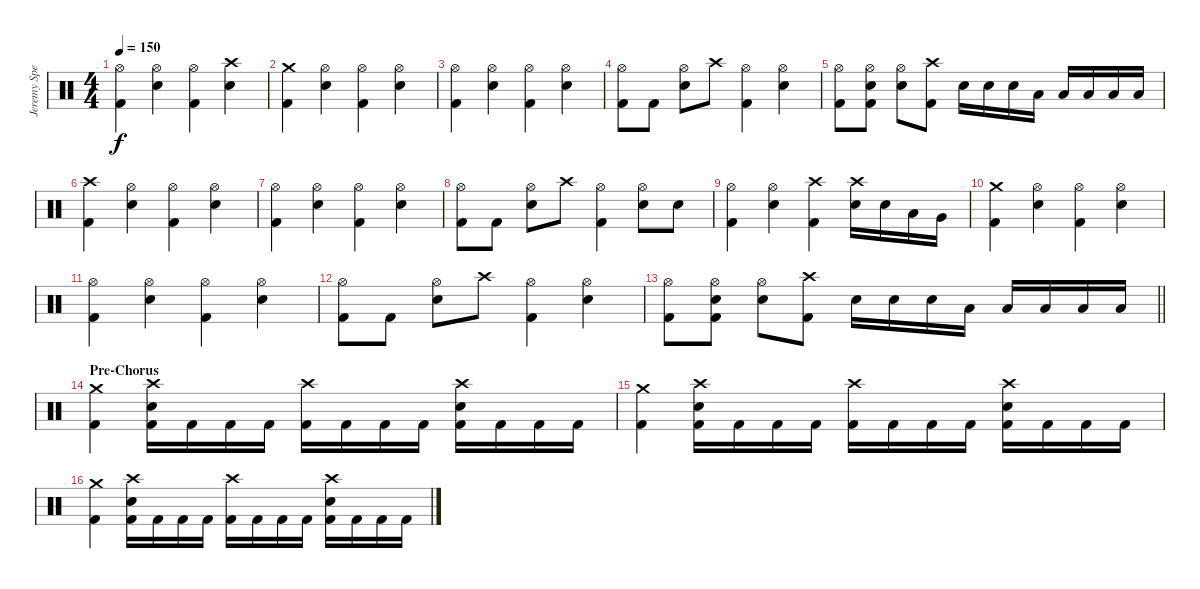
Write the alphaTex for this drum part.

\track ("Jeremy Spencer – Drums" "Jeremy Spe") {instrument percussion}
\staff {score}
\articulation defaults
\ts (4 4)
\tempo 150
\clef neutral
\ks c
("Hi-Hat (open)" "Kick (hit) 2").4{dy f} ("Hi-Hat (open)" "Snare (hit) 2").4 ("Hi-Hat (open)" "Kick (hit) 2").4 ("Crash high (hit)" "Snare (hit) 2").4 |
("Crash medium (hit)" "Kick (hit) 2").4 ("Hi-Hat (open)" "Snare (hit) 2").4 ("Hi-Hat (open)" "Kick (hit) 2").4 ("Hi-Hat (open)" "Snare (hit) 2").4 |
("Hi-Hat (open)" "Kick (hit) 2").4 ("Hi-Hat (open)" "Snare (hit) 2").4 ("Hi-Hat (open)" "Kick (hit) 2").4 ("Hi-Hat (open)" "Snare (hit) 2").4 |
("Hi-Hat (open)" "Kick (hit) 2").8 "Kick (hit) 2".8 ("Hi-Hat (open)" "Snare (hit) 2").8 "Crash high (hit)".8 ("Hi-Hat (open)" "Kick (hit) 2").4 ("Hi-Hat (open)" "Snare (hit) 2").4 |
("Hi-Hat (open)" "Kick (hit) 2").8 ("Hi-Hat (open)" "Snare (hit) 2" "Kick (hit) 2").8 ("Hi-Hat (open)" "Snare (hit) 2").8 ("Crash high (hit)" "Kick (hit) 2").8 "Snare (hit) 2".16 "Snare (hit) 2".16 "Snare (hit) 2".16 "Low Tom (hit)".16 "Low Tom (hit)".16 "Low Tom (hit)".16 "Low Floor Tom (hit)".16 "Low Floor Tom (hit)".16 |
("Crash high (hit)" "Kick (hit) 2").4 ("Hi-Hat (open)" "Snare (hit) 2").4 ("Hi-Hat (open)" "Kick (hit) 2").4 ("Hi-Hat (open)" "Snare (hit) 2").4 |
("Hi-Hat (open)" "Kick (hit) 2").4 ("Hi-Hat (open)" "Snare (hit) 2").4 ("Hi-Hat (open)" "Kick (hit) 2").4 ("Hi-Hat (open)" "Snare (hit) 2").4 |
("Hi-Hat (open)" "Kick (hit) 2").8 "Kick (hit) 2".8 ("Hi-Hat (open)" "Snare (hit) 2").8 "Crash high (hit)".8 ("Hi-Hat (open)" "Kick (hit) 2").4 ("Hi-Hat (open)" "Snare (hit) 2").8 "Snare (hit) 2".8 |
("Hi-Hat (open)" "Kick (hit) 2").4 ("Hi-Hat (open)" "Snare (hit) 2").4 ("Crash high (hit)" "Kick (hit) 2").4 ("Crash high (hit)" "Snare (hit) 2").16 "Snare (hit) 2".16 "Low Tom (hit)".16 "Very Low Tom (hit)".16 |
("Crash medium (hit)" "Kick (hit) 2").4 ("Hi-Hat (open)" "Snare (hit) 2").4 ("Hi-Hat (open)" "Kick (hit) 2").4 ("Hi-Hat (open)" "Snare (hit) 2").4 |
("Hi-Hat (open)" "Kick (hit) 2").4 ("Hi-Hat (open)" "Snare (hit) 2").4 ("Hi-Hat (open)" "Kick (hit) 2").4 ("Hi-Hat (open)" "Snare (hit) 2").4 |
("Hi-Hat (open)" "Kick (hit) 2").8 "Kick (hit) 2".8 ("Hi-Hat (open)" "Snare (hit) 2").8 "Crash high (hit)".8 ("Hi-Hat (open)" "Kick (hit) 2").4 ("Hi-Hat (open)" "Snare (hit) 2").4 |
\barLineRight lightlight
("Hi-Hat (open)" "Kick (hit) 2").8 ("Hi-Hat (open)" "Snare (hit) 2" "Kick (hit) 2").8 ("Hi-Hat (open)" "Snare (hit) 2").8 ("Crash high (hit)" "Kick (hit) 2").8 "Snare (hit) 2".16 "Snare (hit) 2".16 "Snare (hit) 2".16 "Low Tom (hit)".16 "Low Tom (hit)".16 "Low Tom (hit)".16 "Low Floor Tom (hit)".16 "Low Floor Tom (hit)".16 |
\section ("" "Pre-Chorus")
("Crash medium (hit)" "Kick (hit) 2").4 ("Crash high (hit)" "Snare (hit) 2" "Kick (hit) 2").16 "Kick (hit) 2".16 "Kick (hit) 2".16 "Kick (hit) 2".16 ("Crash high (hit)" "Kick (hit) 2").16 "Kick (hit) 2".16 "Kick (hit) 2".16 "Kick (hit) 2".16 ("Crash high (hit)" "Snare (hit) 2" "Kick (hit) 2").16 "Kick (hit) 2".16 "Kick (hit) 2".16 "Kick (hit) 2".16 |
("Crash medium (hit)" "Kick (hit) 2").4 ("Crash high (hit)" "Snare (hit) 2" "Kick (hit) 2").16 "Kick (hit) 2".16 "Kick (hit) 2".16 "Kick (hit) 2".16 ("Crash high (hit)" "Kick (hit) 2").16 "Kick (hit) 2".16 "Kick (hit) 2".16 "Kick (hit) 2".16 ("Crash high (hit)" "Snare (hit) 2" "Kick (hit) 2").16 "Kick (hit) 2".16 "Kick (hit) 2".16 "Kick (hit) 2".16 |
("Crash medium (hit)" "Kick (hit) 2").4 ("Crash high (hit)" "Snare (hit) 2" "Kick (hit) 2").16 "Kick (hit) 2".16 "Kick (hit) 2".16 "Kick (hit) 2".16 ("Crash high (hit)" "Kick (hit) 2").16 "Kick (hit) 2".16 "Kick (hit) 2".16 "Kick (hit) 2".16 ("Crash high (hit)" "Snare (hit) 2" "Kick (hit) 2").16 "Kick (hit) 2".16 "Kick (hit) 2".16 "Kick (hit) 2".16
